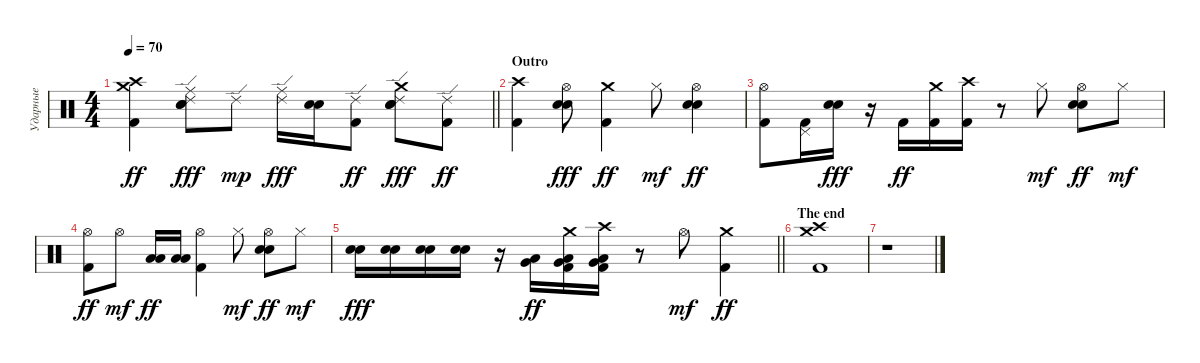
\track ("Ударные" "Ударные") {instrument percussion}
\staff {score}
\articulation defaults
\ts (4 4)
\tempo 70
\clef neutral
\barLineRight lightlight
\ks aminor
("Crash medium (hit)" "Crash high (hit)" "Kick (hit) 2").4{dy ff} ("Ride (edge) 2" "Ride (middle)" "Snare (hit) 2" "Electric Snare (hit)").8{dy fff} "Ride (edge) 2".8{dy mp} ("Ride (edge) 2" "Ride (middle)").16{dy fff} ("Snare (hit) 2" "Electric Snare (hit)").16 ("Ride (edge) 2" "Kick (hit) 2").8{dy ff} ("Ride (edge) 2" "Crash medium (hit)" "Snare (hit) 2" "Electric Snare (hit)").8{dy fff} ("Ride (edge) 2" "Kick (hit) 2").8{dy ff} |
\section ("" "Outro")
("Crash high (hit)" "Kick (hit) 2").4 ("Hi-Hat (open)" "Snare (hit) 2" "Electric Snare (hit)").8{dy fff} ("Crash medium (hit)" "Kick (hit) 2").4{dy ff} "Hi-Hat (closed)".8{dy mf} ("Hi-Hat (open)" "Snare (hit) 2" "Electric Snare (hit)").4{dy ff} |
("Hi-Hat (open)" "Kick (hit) 2").8 ("Pedal Hi-Hat (hit)" "Kick (hit) 2").16 ("Snare (hit) 2" "Electric Snare (hit)").16{dy fff} r.16 "Kick (hit) 2".16{dy ff} ("Crash medium (hit)" "Kick (hit) 2").16 ("Crash high (hit)" "Kick (hit) 2").16 r.8 "Hi-Hat (closed)".8{dy mf} ("Hi-Hat (open)" "Snare (hit) 2" "Electric Snare (hit)").8{dy ff} "Hi-Hat (closed)".8{dy mf} |
("Hi-Hat (open)" "Kick (hit) 2").8{dy ff} "Hi-Hat (open)".8{dy mf} ("Low Tom (hit)" "Low Tom (hit)").16{dy ff} ("Low Tom (hit)" "Low Tom (hit)").16 ("Hi-Hat (open)" "Kick (hit) 2").4 "Hi-Hat (closed)".8{dy mf} ("Hi-Hat (open)" "Snare (hit) 2" "Electric Snare (hit)").8{dy ff} "Hi-Hat (closed)".8{dy mf} |
\barLineRight lightlight
("Snare (hit) 2" "Electric Snare (hit)").16{dy fff} ("Snare (hit) 2" "Electric Snare (hit)").16 ("Snare (hit) 2" "Electric Snare (hit)").16 ("Snare (hit) 2" "Electric Snare (hit)").16 r.16 ("Low Tom (hit)" "Very Low Tom (hit)").16{dy ff} ("Crash medium (hit)" "Low Tom (hit)" "Very Low Tom (hit)" "Kick (hit) 2").16 ("Crash high (hit)" "Low Tom (hit)" "Very Low Tom (hit)" "Kick (hit) 2").16 r.8 "Hi-Hat (open)".8{dy mf} ("Crash medium (hit)" "Kick (hit) 2").4{dy ff} |
\section ("" "The end")
("Crash medium (hit)" "Crash high (hit)" "Kick (hit) 2").1 |
r.1
